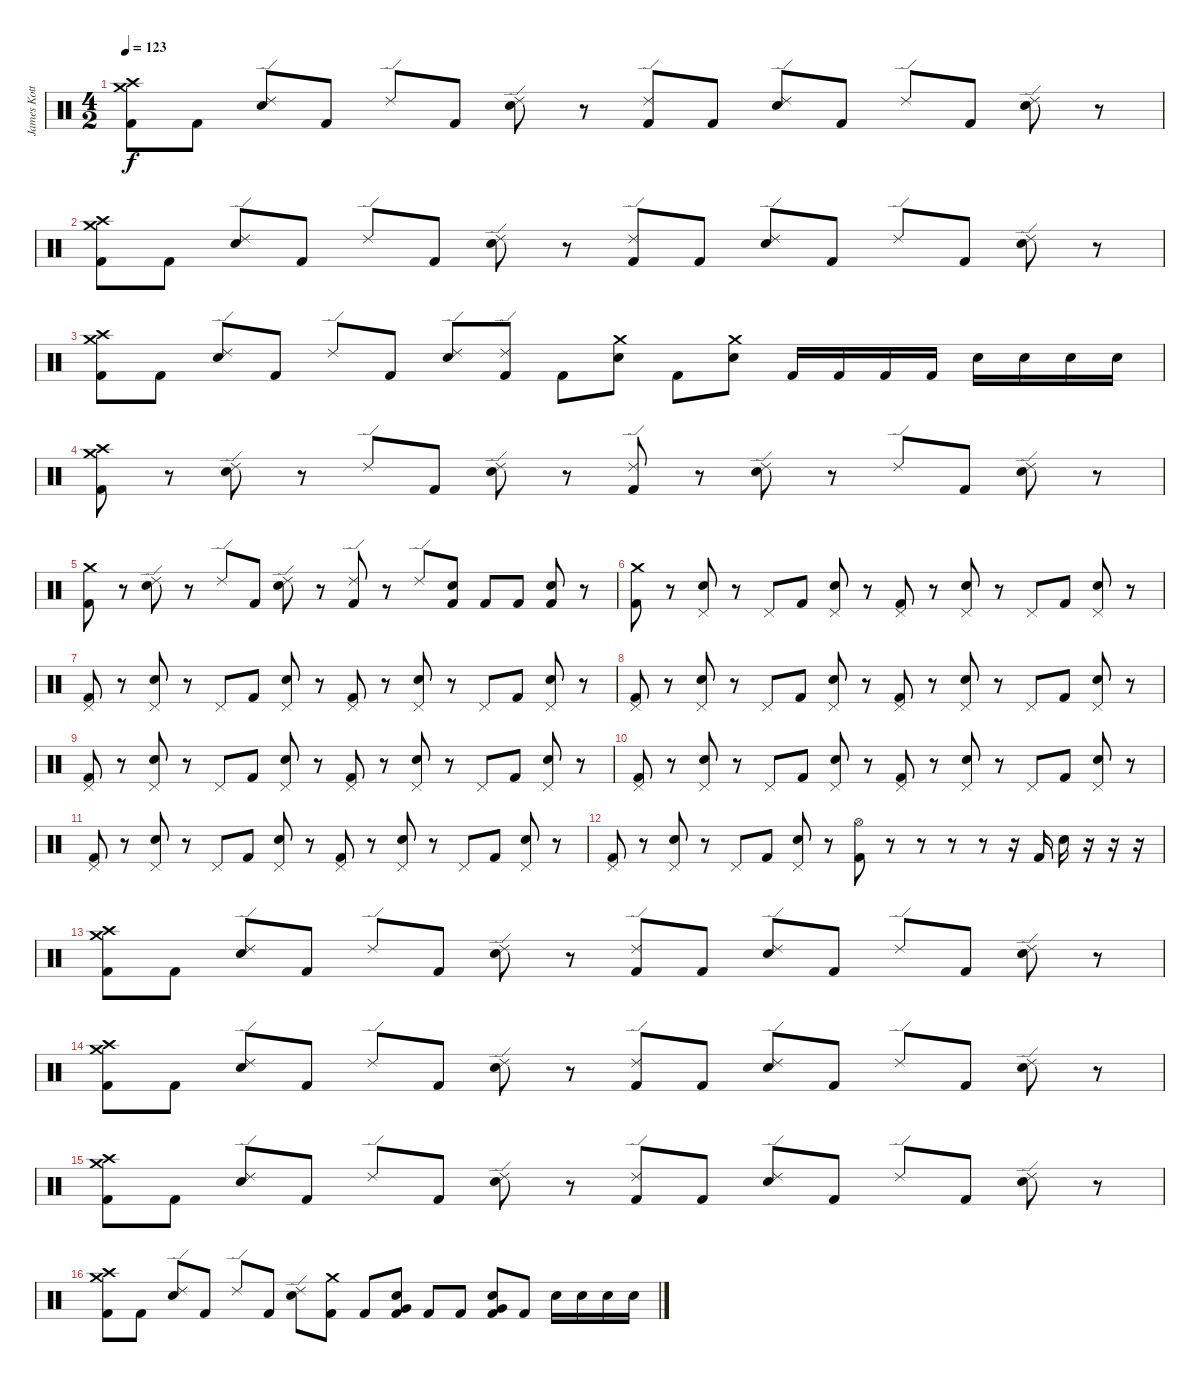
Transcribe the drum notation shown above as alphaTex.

\track ("James Kottak" "James Kott") {instrument percussion}
\staff {score}
\articulation defaults
\ts (4 2)
\tempo 123
\clef neutral
\ks c
("Crash medium (hit)" "Crash high (hit)" "Kick (hit) 2").8{dy f} "Kick (hit) 2".8 ("Ride (edge) 2" "Electric Snare (hit)").8 "Kick (hit) 2".8 "Ride (edge) 2".8 "Kick (hit) 2".8 ("Ride (edge) 2" "Electric Snare (hit)").8 r.8 ("Ride (edge) 2" "Kick (hit) 2").8 "Kick (hit) 2".8 ("Ride (edge) 2" "Electric Snare (hit)").8 "Kick (hit) 2".8 "Ride (edge) 2".8 "Kick (hit) 2".8 ("Ride (edge) 2" "Electric Snare (hit)").8 r.8 |
("Crash medium (hit)" "Crash high (hit)" "Kick (hit) 2").8 "Kick (hit) 2".8 ("Ride (edge) 2" "Electric Snare (hit)").8 "Kick (hit) 2".8 "Ride (edge) 2".8 "Kick (hit) 2".8 ("Ride (edge) 2" "Electric Snare (hit)").8 r.8 ("Ride (edge) 2" "Kick (hit) 2").8 "Kick (hit) 2".8 ("Ride (edge) 2" "Electric Snare (hit)").8 "Kick (hit) 2".8 "Ride (edge) 2".8 "Kick (hit) 2".8 ("Ride (edge) 2" "Electric Snare (hit)").8 r.8 |
("Crash medium (hit)" "Crash high (hit)" "Kick (hit) 2").8 "Kick (hit) 2".8 ("Ride (edge) 2" "Electric Snare (hit)").8 "Kick (hit) 2".8 "Ride (edge) 2".8 "Kick (hit) 2".8 ("Ride (edge) 2" "Electric Snare (hit)").8 ("Ride (edge) 2" "Kick (hit) 2").8 "Kick (hit) 2".8 ("Crash medium (hit)" "Electric Snare (hit)").8 "Kick (hit) 2".8 ("Crash medium (hit)" "Electric Snare (hit)").8 "Kick (hit) 2".16 "Kick (hit) 2".16 "Kick (hit) 2".16 "Kick (hit) 2".16 "Electric Snare (hit)".16 "Electric Snare (hit)".16 "Electric Snare (hit)".16 "Electric Snare (hit)".16 |
("Crash high (hit)" "Crash medium (hit)" "Kick (hit) 2").8 r.8 ("Ride (edge) 2" "Electric Snare (hit)").8 r.8 "Ride (edge) 2".8 "Kick (hit) 2".8 ("Ride (edge) 2" "Electric Snare (hit)").8 r.8 ("Ride (edge) 2" "Kick (hit) 2").8 r.8 ("Ride (edge) 2" "Electric Snare (hit)").8 r.8 "Ride (edge) 2".8 "Kick (hit) 2".8 ("Ride (edge) 2" "Electric Snare (hit)").8 r.8 |
("Crash medium (hit)" "Kick (hit) 2").8 r.8 ("Ride (edge) 2" "Electric Snare (hit)").8 r.8 "Ride (edge) 2".8 "Kick (hit) 2".8 ("Ride (edge) 2" "Electric Snare (hit)").8 r.8 ("Ride (edge) 2" "Kick (hit) 2").8 r.8 "Ride (edge) 2".8 ("Electric Snare (hit)" "Kick (hit) 2").8 "Kick (hit) 2".8 "Kick (hit) 2".8 ("Electric Snare (hit)" "Kick (hit) 2").8 r.8 |
("Crash medium (hit)" "Kick (hit) 2").8 r.8 ("Pedal Hi-Hat (hit)" "Electric Snare (hit)").8 r.8 "Pedal Hi-Hat (hit)".8 "Kick (hit) 2".8 ("Pedal Hi-Hat (hit)" "Electric Snare (hit)").8 r.8 ("Pedal Hi-Hat (hit)" "Kick (hit) 2").8 r.8 ("Pedal Hi-Hat (hit)" "Electric Snare (hit)").8 r.8 "Pedal Hi-Hat (hit)".8 "Kick (hit) 2".8 ("Pedal Hi-Hat (hit)" "Electric Snare (hit)").8 r.8 |
("Pedal Hi-Hat (hit)" "Kick (hit) 2").8 r.8 ("Pedal Hi-Hat (hit)" "Electric Snare (hit)").8 r.8 "Pedal Hi-Hat (hit)".8 "Kick (hit) 2".8 ("Pedal Hi-Hat (hit)" "Electric Snare (hit)").8 r.8 ("Pedal Hi-Hat (hit)" "Kick (hit) 2").8 r.8 ("Pedal Hi-Hat (hit)" "Electric Snare (hit)").8 r.8 "Pedal Hi-Hat (hit)".8 "Kick (hit) 2".8 ("Pedal Hi-Hat (hit)" "Electric Snare (hit)").8 r.8 |
("Pedal Hi-Hat (hit)" "Kick (hit) 2").8 r.8 ("Pedal Hi-Hat (hit)" "Electric Snare (hit)").8 r.8 "Pedal Hi-Hat (hit)".8 "Kick (hit) 2".8 ("Pedal Hi-Hat (hit)" "Electric Snare (hit)").8 r.8 ("Pedal Hi-Hat (hit)" "Kick (hit) 2").8 r.8 ("Pedal Hi-Hat (hit)" "Electric Snare (hit)").8 r.8 "Pedal Hi-Hat (hit)".8 "Kick (hit) 2".8 ("Pedal Hi-Hat (hit)" "Electric Snare (hit)").8 r.8 |
("Pedal Hi-Hat (hit)" "Kick (hit) 2").8 r.8 ("Pedal Hi-Hat (hit)" "Electric Snare (hit)").8 r.8 "Pedal Hi-Hat (hit)".8 "Kick (hit) 2".8 ("Pedal Hi-Hat (hit)" "Electric Snare (hit)").8 r.8 ("Pedal Hi-Hat (hit)" "Kick (hit) 2").8 r.8 ("Pedal Hi-Hat (hit)" "Electric Snare (hit)").8 r.8 "Pedal Hi-Hat (hit)".8 "Kick (hit) 2".8 ("Pedal Hi-Hat (hit)" "Electric Snare (hit)").8 r.8 |
("Pedal Hi-Hat (hit)" "Kick (hit) 2").8 r.8 ("Pedal Hi-Hat (hit)" "Electric Snare (hit)").8 r.8 "Pedal Hi-Hat (hit)".8 "Kick (hit) 2".8 ("Pedal Hi-Hat (hit)" "Electric Snare (hit)").8 r.8 ("Pedal Hi-Hat (hit)" "Kick (hit) 2").8 r.8 ("Pedal Hi-Hat (hit)" "Electric Snare (hit)").8 r.8 "Pedal Hi-Hat (hit)".8 "Kick (hit) 2".8 ("Pedal Hi-Hat (hit)" "Electric Snare (hit)").8 r.8 |
("Pedal Hi-Hat (hit)" "Kick (hit) 2").8 r.8 ("Pedal Hi-Hat (hit)" "Electric Snare (hit)").8 r.8 "Pedal Hi-Hat (hit)".8 "Kick (hit) 2".8 ("Pedal Hi-Hat (hit)" "Electric Snare (hit)").8 r.8 ("Pedal Hi-Hat (hit)" "Kick (hit) 2").8 r.8 ("Pedal Hi-Hat (hit)" "Electric Snare (hit)").8 r.8 "Pedal Hi-Hat (hit)".8 "Kick (hit) 2".8 ("Pedal Hi-Hat (hit)" "Electric Snare (hit)").8 r.8 |
("Pedal Hi-Hat (hit)" "Kick (hit) 2").8 r.8 ("Pedal Hi-Hat (hit)" "Electric Snare (hit)").8 r.8 "Pedal Hi-Hat (hit)".8 "Kick (hit) 2".8 ("Pedal Hi-Hat (hit)" "Electric Snare (hit)").8 r.8 ("Hi-Hat (open)" "Kick (hit) 2").8 r.8 r.8 r.8 r.8 r.16 "Kick (hit) 2".16 "Electric Snare (hit)".16 r.16 r.16 r.16 |
("Crash medium (hit)" "Crash high (hit)" "Kick (hit) 2").8 "Kick (hit) 2".8 ("Ride (edge) 2" "Electric Snare (hit)").8 "Kick (hit) 2".8 "Ride (edge) 2".8 "Kick (hit) 2".8 ("Ride (edge) 2" "Electric Snare (hit)").8 r.8 ("Ride (edge) 2" "Kick (hit) 2").8 "Kick (hit) 2".8 ("Ride (edge) 2" "Electric Snare (hit)").8 "Kick (hit) 2".8 "Ride (edge) 2".8 "Kick (hit) 2".8 ("Ride (edge) 2" "Electric Snare (hit)").8 r.8 |
("Crash medium (hit)" "Crash high (hit)" "Kick (hit) 2").8 "Kick (hit) 2".8 ("Ride (edge) 2" "Electric Snare (hit)").8 "Kick (hit) 2".8 "Ride (edge) 2".8 "Kick (hit) 2".8 ("Ride (edge) 2" "Electric Snare (hit)").8 r.8 ("Ride (edge) 2" "Kick (hit) 2").8 "Kick (hit) 2".8 ("Ride (edge) 2" "Electric Snare (hit)").8 "Kick (hit) 2".8 "Ride (edge) 2".8 "Kick (hit) 2".8 ("Ride (edge) 2" "Electric Snare (hit)").8 r.8 |
("Crash medium (hit)" "Crash high (hit)" "Kick (hit) 2").8 "Kick (hit) 2".8 ("Ride (edge) 2" "Electric Snare (hit)").8 "Kick (hit) 2".8 "Ride (edge) 2".8 "Kick (hit) 2".8 ("Ride (edge) 2" "Electric Snare (hit)").8 r.8 ("Ride (edge) 2" "Kick (hit) 2").8 "Kick (hit) 2".8 ("Ride (edge) 2" "Electric Snare (hit)").8 "Kick (hit) 2".8 "Ride (edge) 2".8 "Kick (hit) 2".8 ("Ride (edge) 2" "Electric Snare (hit)").8 r.8 |
("Crash medium (hit)" "Crash high (hit)" "Kick (hit) 2").8 "Kick (hit) 2".8 ("Ride (edge) 2" "Electric Snare (hit)").8 "Kick (hit) 2".8 "Ride (edge) 2".8 "Kick (hit) 2".8 ("Ride (edge) 2" "Electric Snare (hit)").8 ("Crash medium (hit)" "Kick (hit) 2").8 "Kick (hit) 2".8 ("Electric Snare (hit)" "Kick (hit) 2" "Very Low Tom (hit)").8 "Kick (hit) 2".8 "Kick (hit) 2".8 ("Electric Snare (hit)" "Kick (hit) 2" "Very Low Tom (hit)").8 "Kick (hit) 2".8 "Electric Snare (hit)".16 "Electric Snare (hit)".16 "Electric Snare (hit)".16 "Electric Snare (hit)".16
